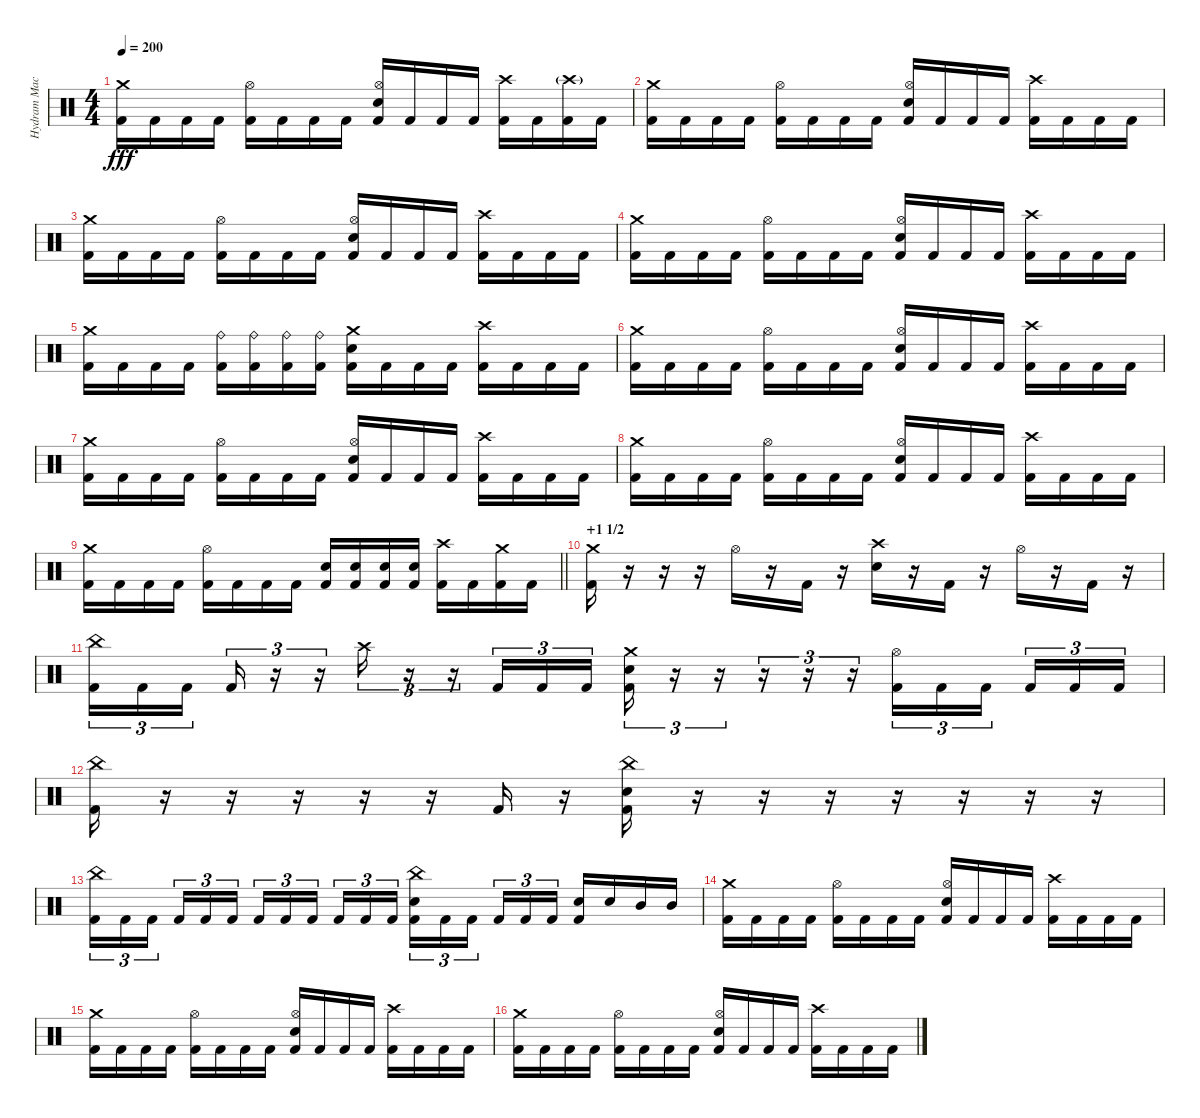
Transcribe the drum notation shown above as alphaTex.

\track ("Hydram Machine" "Hydram Mac") {instrument percussion}
\staff {score}
\articulation defaults
\ts (4 4)
\tempo 200
\clef neutral
\ks c
("Crash medium (hit)" "Kick (hit) 2").16{dy fff} "Kick (hit) 2".16 "Kick (hit) 2".16 "Kick (hit) 2".16 ("Hi-Hat (open)" "Kick (hit) 2").16 "Kick (hit) 2".16 "Kick (hit) 2".16 "Kick (hit) 2".16 ("Hi-Hat (open)" "Electric Snare (hit)" "Kick (hit) 2").16 "Kick (hit) 2".16 "Kick (hit) 2".16 "Kick (hit) 2".16 ("Crash high (hit)" "Kick (hit) 2").16 "Kick (hit) 2".16 ("Crash high (hit)"{g} "Kick (hit) 2").16 "Kick (hit) 2".16 |
("Crash medium (hit)" "Kick (hit) 2").16 "Kick (hit) 2".16 "Kick (hit) 2".16 "Kick (hit) 2".16 ("Hi-Hat (open)" "Kick (hit) 2").16 "Kick (hit) 2".16 "Kick (hit) 2".16 "Kick (hit) 2".16 ("Hi-Hat (open)" "Electric Snare (hit)" "Kick (hit) 2").16 "Kick (hit) 2".16 "Kick (hit) 2".16 "Kick (hit) 2".16 ("Crash high (hit)" "Kick (hit) 2").16 "Kick (hit) 2".16 "Kick (hit) 2".16 "Kick (hit) 2".16 |
("Crash medium (hit)" "Kick (hit) 2").16 "Kick (hit) 2".16 "Kick (hit) 2".16 "Kick (hit) 2".16 ("Hi-Hat (open)" "Kick (hit) 2").16 "Kick (hit) 2".16 "Kick (hit) 2".16 "Kick (hit) 2".16 ("Hi-Hat (open)" "Electric Snare (hit)" "Kick (hit) 2").16 "Kick (hit) 2".16 "Kick (hit) 2".16 "Kick (hit) 2".16 ("Crash high (hit)" "Kick (hit) 2").16 "Kick (hit) 2".16 "Kick (hit) 2".16 "Kick (hit) 2".16 |
("Crash medium (hit)" "Kick (hit) 2").16 "Kick (hit) 2".16 "Kick (hit) 2".16 "Kick (hit) 2".16 ("Hi-Hat (open)" "Kick (hit) 2").16 "Kick (hit) 2".16 "Kick (hit) 2".16 "Kick (hit) 2".16 ("Hi-Hat (open)" "Electric Snare (hit)" "Kick (hit) 2").16 "Kick (hit) 2".16 "Kick (hit) 2".16 "Kick (hit) 2".16 ("Crash high (hit)" "Kick (hit) 2").16 "Kick (hit) 2".16 "Kick (hit) 2".16 "Kick (hit) 2".16 |
("Crash medium (hit)" "Kick (hit) 2").16 "Kick (hit) 2".16 "Kick (hit) 2".16 "Kick (hit) 2".16 ("Ride (bell)" "Kick (hit) 2").16 ("Ride (bell)" "Kick (hit) 2").16 ("Ride (bell)" "Kick (hit) 2").16 ("Ride (bell)" "Kick (hit) 2").16 ("Crash medium (hit)" "Electric Snare (hit)" "Kick (hit) 2").16 "Kick (hit) 2".16 "Kick (hit) 2".16 "Kick (hit) 2".16 ("Crash high (hit)" "Kick (hit) 2").16 "Kick (hit) 2".16 "Kick (hit) 2".16 "Kick (hit) 2".16 |
("Crash medium (hit)" "Kick (hit) 2").16 "Kick (hit) 2".16 "Kick (hit) 2".16 "Kick (hit) 2".16 ("Hi-Hat (open)" "Kick (hit) 2").16 "Kick (hit) 2".16 "Kick (hit) 2".16 "Kick (hit) 2".16 ("Hi-Hat (open)" "Electric Snare (hit)" "Kick (hit) 2").16 "Kick (hit) 2".16 "Kick (hit) 2".16 "Kick (hit) 2".16 ("Crash high (hit)" "Kick (hit) 2").16 "Kick (hit) 2".16 "Kick (hit) 2".16 "Kick (hit) 2".16 |
("Crash medium (hit)" "Kick (hit) 2").16 "Kick (hit) 2".16 "Kick (hit) 2".16 "Kick (hit) 2".16 ("Hi-Hat (open)" "Kick (hit) 2").16 "Kick (hit) 2".16 "Kick (hit) 2".16 "Kick (hit) 2".16 ("Hi-Hat (open)" "Electric Snare (hit)" "Kick (hit) 2").16 "Kick (hit) 2".16 "Kick (hit) 2".16 "Kick (hit) 2".16 ("Crash high (hit)" "Kick (hit) 2").16 "Kick (hit) 2".16 "Kick (hit) 2".16 "Kick (hit) 2".16 |
("Crash medium (hit)" "Kick (hit) 2").16 "Kick (hit) 2".16 "Kick (hit) 2".16 "Kick (hit) 2".16 ("Hi-Hat (open)" "Kick (hit) 2").16 "Kick (hit) 2".16 "Kick (hit) 2".16 "Kick (hit) 2".16 ("Hi-Hat (open)" "Electric Snare (hit)" "Kick (hit) 2").16 "Kick (hit) 2".16 "Kick (hit) 2".16 "Kick (hit) 2".16 ("Crash high (hit)" "Kick (hit) 2").16 "Kick (hit) 2".16 "Kick (hit) 2".16 "Kick (hit) 2".16 |
\barLineRight lightlight
("Crash medium (hit)" "Kick (hit) 2").16 "Kick (hit) 2".16 "Kick (hit) 2".16 "Kick (hit) 2".16 ("Hi-Hat (open)" "Kick (hit) 2").16 "Kick (hit) 2".16 "Kick (hit) 2".16 "Kick (hit) 2".16 ("Electric Snare (hit)" "Kick (hit) 2").16 ("Electric Snare (hit)" "Kick (hit) 2").16 ("Electric Snare (hit)" "Kick (hit) 2").16 ("Electric Snare (hit)" "Kick (hit) 2").16 ("Crash high (hit)" "Kick (hit) 2").16 "Kick (hit) 2".16 ("Crash medium (hit)" "Kick (hit) 2").16 "Kick (hit) 2".16 |
\section ("" "+1 1/2")
("Crash medium (hit)" "Kick (hit) 2").16 r.16 r.16 r.16 "Hi-Hat (open)".16 r.16 "Kick (hit) 2".16 r.16 ("Crash high (hit)" "Electric Snare (hit)").16 r.16 "Kick (hit) 2".16 r.16 "Hi-Hat (open)".16 r.16 "Kick (hit) 2".16 r.16 |
("China (hit)" "Kick (hit) 2").16{tu (3 2)} "Kick (hit) 2".16{tu (3 2)} "Kick (hit) 2".16{tu (3 2) beam splitsecondary} "Kick (hit) 2".16{tu (3 2)} r.16{tu (3 2)} r.16{tu (3 2)} "Crash high (hit)".16{tu (3 2)} r.16{tu (3 2)} r.16{tu (3 2)} "Kick (hit) 2".16{tu (3 2)} "Kick (hit) 2".16{tu (3 2)} "Kick (hit) 2".16{tu (3 2)} ("Crash medium (hit)" "Electric Snare (hit)" "Kick (hit) 2").16{tu (3 2)} r.16{tu (3 2)} r.16{tu (3 2)} r.16{tu (3 2)} r.16{tu (3 2)} r.16{tu (3 2)} ("Hi-Hat (open)" "Kick (hit) 2").16{tu (3 2)} "Kick (hit) 2".16{tu (3 2)} "Kick (hit) 2".16{tu (3 2) beam splitsecondary} "Kick (hit) 2".16{tu (3 2)} "Kick (hit) 2".16{tu (3 2)} "Kick (hit) 2".16{tu (3 2)} |
("China (hit)" "Kick (hit) 2").16 r.16 r.16 r.16 r.16 r.16 "Kick (hit) 2".16 r.16 ("China (hit)" "Electric Snare (hit)" "Kick (hit) 2").16 r.16 r.16 r.16 r.16 r.16 r.16 r.16 |
("China (hit)" "Kick (hit) 2").16{tu (3 2)} "Kick (hit) 2".16{tu (3 2)} "Kick (hit) 2".16{tu (3 2) beam splitsecondary} "Kick (hit) 2".16{tu (3 2)} "Kick (hit) 2".16{tu (3 2)} "Kick (hit) 2".16{tu (3 2)} "Kick (hit) 2".16{tu (3 2)} "Kick (hit) 2".16{tu (3 2)} "Kick (hit) 2".16{tu (3 2) beam splitsecondary} "Kick (hit) 2".16{tu (3 2)} "Kick (hit) 2".16{tu (3 2)} "Kick (hit) 2".16{tu (3 2)} ("China (hit)" "Electric Snare (hit)" "Kick (hit) 2").16{tu (3 2)} "Kick (hit) 2".16{tu (3 2)} "Kick (hit) 2".16{tu (3 2) beam splitsecondary} "Kick (hit) 2".16{tu (3 2)} "Kick (hit) 2".16{tu (3 2)} "Kick (hit) 2".16{tu (3 2)} ("Electric Snare (hit)" "Kick (hit) 2").16 "Electric Snare (hit)".16 "Mid Tom (hit)".16 "Mid Tom (hit)".16 |
("Crash medium (hit)" "Kick (hit) 2").16 "Kick (hit) 2".16 "Kick (hit) 2".16 "Kick (hit) 2".16 ("Hi-Hat (open)" "Kick (hit) 2").16 "Kick (hit) 2".16 "Kick (hit) 2".16 "Kick (hit) 2".16 ("Hi-Hat (open)" "Electric Snare (hit)" "Kick (hit) 2").16 "Kick (hit) 2".16 "Kick (hit) 2".16 "Kick (hit) 2".16 ("Crash high (hit)" "Kick (hit) 2").16 "Kick (hit) 2".16 "Kick (hit) 2".16 "Kick (hit) 2".16 |
("Crash medium (hit)" "Kick (hit) 2").16 "Kick (hit) 2".16 "Kick (hit) 2".16 "Kick (hit) 2".16 ("Hi-Hat (open)" "Kick (hit) 2").16 "Kick (hit) 2".16 "Kick (hit) 2".16 "Kick (hit) 2".16 ("Hi-Hat (open)" "Electric Snare (hit)" "Kick (hit) 2").16 "Kick (hit) 2".16 "Kick (hit) 2".16 "Kick (hit) 2".16 ("Crash high (hit)" "Kick (hit) 2").16 "Kick (hit) 2".16 "Kick (hit) 2".16 "Kick (hit) 2".16 |
("Crash medium (hit)" "Kick (hit) 2").16 "Kick (hit) 2".16 "Kick (hit) 2".16 "Kick (hit) 2".16 ("Hi-Hat (open)" "Kick (hit) 2").16 "Kick (hit) 2".16 "Kick (hit) 2".16 "Kick (hit) 2".16 ("Hi-Hat (open)" "Electric Snare (hit)" "Kick (hit) 2").16 "Kick (hit) 2".16 "Kick (hit) 2".16 "Kick (hit) 2".16 ("Crash high (hit)" "Kick (hit) 2").16 "Kick (hit) 2".16 "Kick (hit) 2".16 "Kick (hit) 2".16
